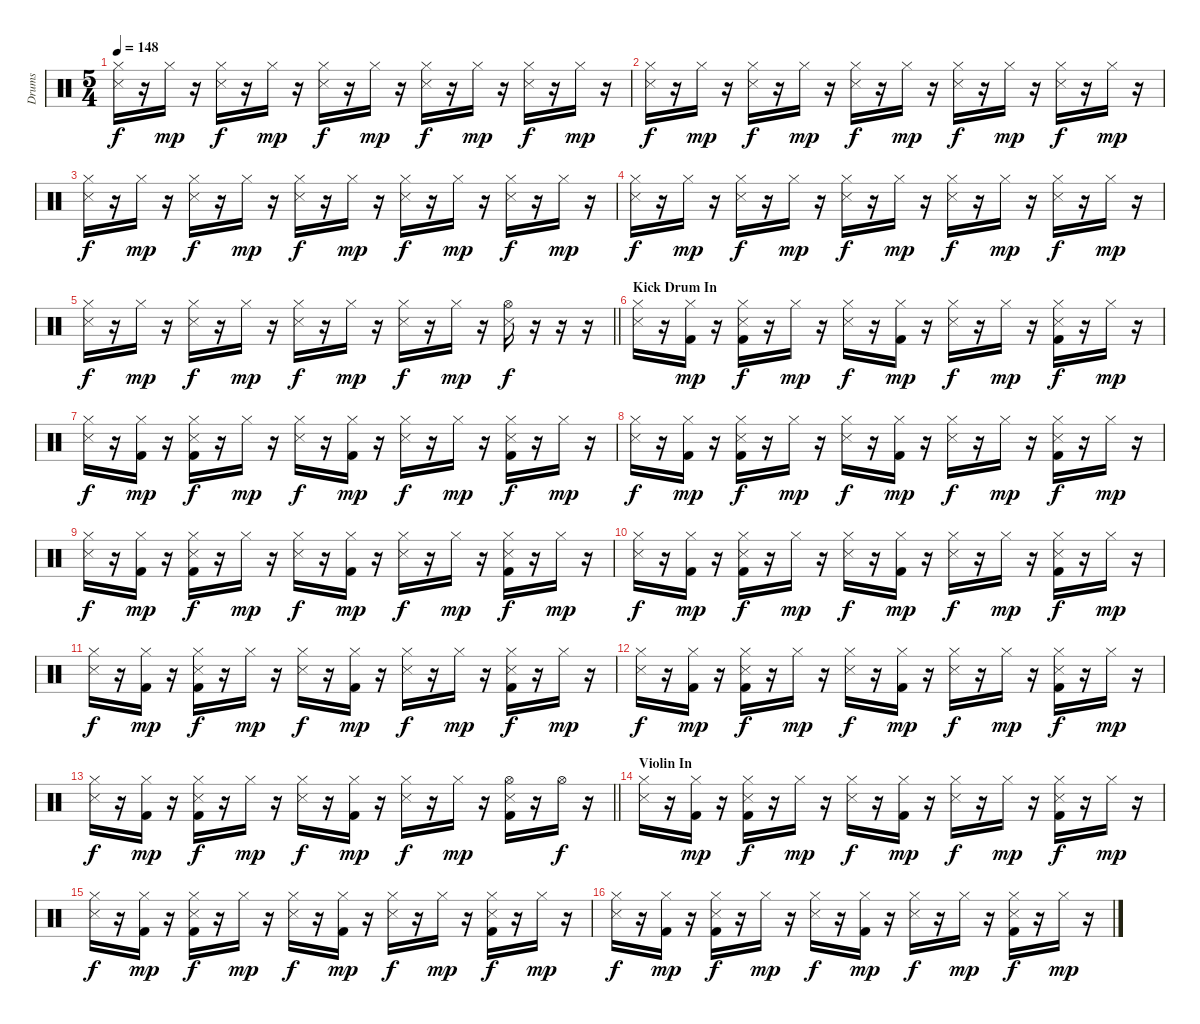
\track ("Drums" "Drums") {instrument percussion}
\staff {score}
\articulation defaults
\ts (5 4)
\tempo 148
\clef neutral
\ks c
("Hi-Hat (closed)" "Snare (side stick) 3").16{dy f} r.16 "Hi-Hat (closed)".16{dy mp} r.16 ("Hi-Hat (closed)" "Snare (side stick) 3").16{dy f} r.16 "Hi-Hat (closed)".16{dy mp} r.16 ("Hi-Hat (closed)" "Snare (side stick) 3").16{dy f} r.16 "Hi-Hat (closed)".16{dy mp} r.16 ("Hi-Hat (closed)" "Snare (side stick) 3").16{dy f} r.16 "Hi-Hat (closed)".16{dy mp} r.16 ("Hi-Hat (closed)" "Snare (side stick) 3").16{dy f} r.16 "Hi-Hat (closed)".16{dy mp} r.16 |
("Hi-Hat (closed)" "Snare (side stick) 3").16{dy f} r.16 "Hi-Hat (closed)".16{dy mp} r.16 ("Hi-Hat (closed)" "Snare (side stick) 3").16{dy f} r.16 "Hi-Hat (closed)".16{dy mp} r.16 ("Hi-Hat (closed)" "Snare (side stick) 3").16{dy f} r.16 "Hi-Hat (closed)".16{dy mp} r.16 ("Hi-Hat (closed)" "Snare (side stick) 3").16{dy f} r.16 "Hi-Hat (closed)".16{dy mp} r.16 ("Hi-Hat (closed)" "Snare (side stick) 3").16{dy f} r.16 "Hi-Hat (closed)".16{dy mp} r.16 |
("Hi-Hat (closed)" "Snare (side stick) 3").16{dy f} r.16 "Hi-Hat (closed)".16{dy mp} r.16 ("Hi-Hat (closed)" "Snare (side stick) 3").16{dy f} r.16 "Hi-Hat (closed)".16{dy mp} r.16 ("Hi-Hat (closed)" "Snare (side stick) 3").16{dy f} r.16 "Hi-Hat (closed)".16{dy mp} r.16 ("Hi-Hat (closed)" "Snare (side stick) 3").16{dy f} r.16 "Hi-Hat (closed)".16{dy mp} r.16 ("Hi-Hat (closed)" "Snare (side stick) 3").16{dy f} r.16 "Hi-Hat (closed)".16{dy mp} r.16 |
("Hi-Hat (closed)" "Snare (side stick) 3").16{dy f} r.16 "Hi-Hat (closed)".16{dy mp} r.16 ("Hi-Hat (closed)" "Snare (side stick) 3").16{dy f} r.16 "Hi-Hat (closed)".16{dy mp} r.16 ("Hi-Hat (closed)" "Snare (side stick) 3").16{dy f} r.16 "Hi-Hat (closed)".16{dy mp} r.16 ("Hi-Hat (closed)" "Snare (side stick) 3").16{dy f} r.16 "Hi-Hat (closed)".16{dy mp} r.16 ("Hi-Hat (closed)" "Snare (side stick) 3").16{dy f} r.16 "Hi-Hat (closed)".16{dy mp} r.16 |
\barLineRight lightlight
("Hi-Hat (closed)" "Snare (side stick) 3").16{dy f} r.16 "Hi-Hat (closed)".16{dy mp} r.16 ("Hi-Hat (closed)" "Snare (side stick) 3").16{dy f} r.16 "Hi-Hat (closed)".16{dy mp} r.16 ("Hi-Hat (closed)" "Snare (side stick) 3").16{dy f} r.16 "Hi-Hat (closed)".16{dy mp} r.16 ("Hi-Hat (closed)" "Snare (side stick) 3").16{dy f} r.16 "Hi-Hat (closed)".16{dy mp} r.16 ("Hi-Hat (open)" "Snare (side stick) 3").16{dy f} r.16 r.16 r.16 |
\section ("" "Kick Drum In")
("Hi-Hat (closed)" "Snare (side stick) 3").16 r.16 ("Hi-Hat (closed)" "Kick (hit) 2").16{dy mp} r.16 ("Hi-Hat (closed)" "Snare (side stick) 3" "Kick (hit) 2").16{dy f} r.16 "Hi-Hat (closed)".16{dy mp} r.16 ("Hi-Hat (closed)" "Snare (side stick) 3").16{dy f} r.16 ("Hi-Hat (closed)" "Kick (hit) 2").16{dy mp} r.16 ("Hi-Hat (closed)" "Snare (side stick) 3").16{dy f} r.16 "Hi-Hat (closed)".16{dy mp} r.16 ("Hi-Hat (closed)" "Snare (side stick) 3" "Kick (hit) 2").16{dy f} r.16 "Hi-Hat (closed)".16{dy mp} r.16 |
("Hi-Hat (closed)" "Snare (side stick) 3").16{dy f} r.16 ("Hi-Hat (closed)" "Kick (hit) 2").16{dy mp} r.16 ("Hi-Hat (closed)" "Snare (side stick) 3" "Kick (hit) 2").16{dy f} r.16 "Hi-Hat (closed)".16{dy mp} r.16 ("Hi-Hat (closed)" "Snare (side stick) 3").16{dy f} r.16 ("Hi-Hat (closed)" "Kick (hit) 2").16{dy mp} r.16 ("Hi-Hat (closed)" "Snare (side stick) 3").16{dy f} r.16 "Hi-Hat (closed)".16{dy mp} r.16 ("Hi-Hat (closed)" "Snare (side stick) 3" "Kick (hit) 2").16{dy f} r.16 "Hi-Hat (closed)".16{dy mp} r.16 |
("Hi-Hat (closed)" "Snare (side stick) 3").16{dy f} r.16 ("Hi-Hat (closed)" "Kick (hit) 2").16{dy mp} r.16 ("Hi-Hat (closed)" "Snare (side stick) 3" "Kick (hit) 2").16{dy f} r.16 "Hi-Hat (closed)".16{dy mp} r.16 ("Hi-Hat (closed)" "Snare (side stick) 3").16{dy f} r.16 ("Hi-Hat (closed)" "Kick (hit) 2").16{dy mp} r.16 ("Hi-Hat (closed)" "Snare (side stick) 3").16{dy f} r.16 "Hi-Hat (closed)".16{dy mp} r.16 ("Hi-Hat (closed)" "Snare (side stick) 3" "Kick (hit) 2").16{dy f} r.16 "Hi-Hat (closed)".16{dy mp} r.16 |
("Hi-Hat (closed)" "Snare (side stick) 3").16{dy f} r.16 ("Hi-Hat (closed)" "Kick (hit) 2").16{dy mp} r.16 ("Hi-Hat (closed)" "Snare (side stick) 3" "Kick (hit) 2").16{dy f} r.16 "Hi-Hat (closed)".16{dy mp} r.16 ("Hi-Hat (closed)" "Snare (side stick) 3").16{dy f} r.16 ("Hi-Hat (closed)" "Kick (hit) 2").16{dy mp} r.16 ("Hi-Hat (closed)" "Snare (side stick) 3").16{dy f} r.16 "Hi-Hat (closed)".16{dy mp} r.16 ("Hi-Hat (closed)" "Snare (side stick) 3" "Kick (hit) 2").16{dy f} r.16 "Hi-Hat (closed)".16{dy mp} r.16 |
("Hi-Hat (closed)" "Snare (side stick) 3").16{dy f} r.16 ("Hi-Hat (closed)" "Kick (hit) 2").16{dy mp} r.16 ("Hi-Hat (closed)" "Snare (side stick) 3" "Kick (hit) 2").16{dy f} r.16 "Hi-Hat (closed)".16{dy mp} r.16 ("Hi-Hat (closed)" "Snare (side stick) 3").16{dy f} r.16 ("Hi-Hat (closed)" "Kick (hit) 2").16{dy mp} r.16 ("Hi-Hat (closed)" "Snare (side stick) 3").16{dy f} r.16 "Hi-Hat (closed)".16{dy mp} r.16 ("Hi-Hat (closed)" "Snare (side stick) 3" "Kick (hit) 2").16{dy f} r.16 "Hi-Hat (closed)".16{dy mp} r.16 |
("Hi-Hat (closed)" "Snare (side stick) 3").16{dy f} r.16 ("Hi-Hat (closed)" "Kick (hit) 2").16{dy mp} r.16 ("Hi-Hat (closed)" "Snare (side stick) 3" "Kick (hit) 2").16{dy f} r.16 "Hi-Hat (closed)".16{dy mp} r.16 ("Hi-Hat (closed)" "Snare (side stick) 3").16{dy f} r.16 ("Hi-Hat (closed)" "Kick (hit) 2").16{dy mp} r.16 ("Hi-Hat (closed)" "Snare (side stick) 3").16{dy f} r.16 "Hi-Hat (closed)".16{dy mp} r.16 ("Hi-Hat (closed)" "Snare (side stick) 3" "Kick (hit) 2").16{dy f} r.16 "Hi-Hat (closed)".16{dy mp} r.16 |
("Hi-Hat (closed)" "Snare (side stick) 3").16{dy f} r.16 ("Hi-Hat (closed)" "Kick (hit) 2").16{dy mp} r.16 ("Hi-Hat (closed)" "Snare (side stick) 3" "Kick (hit) 2").16{dy f} r.16 "Hi-Hat (closed)".16{dy mp} r.16 ("Hi-Hat (closed)" "Snare (side stick) 3").16{dy f} r.16 ("Hi-Hat (closed)" "Kick (hit) 2").16{dy mp} r.16 ("Hi-Hat (closed)" "Snare (side stick) 3").16{dy f} r.16 "Hi-Hat (closed)".16{dy mp} r.16 ("Hi-Hat (closed)" "Snare (side stick) 3" "Kick (hit) 2").16{dy f} r.16 "Hi-Hat (closed)".16{dy mp} r.16 |
\barLineRight lightlight
("Hi-Hat (closed)" "Snare (side stick) 3").16{dy f} r.16 ("Hi-Hat (closed)" "Kick (hit) 2").16{dy mp} r.16 ("Hi-Hat (closed)" "Snare (side stick) 3" "Kick (hit) 2").16{dy f} r.16 "Hi-Hat (closed)".16{dy mp} r.16 ("Hi-Hat (closed)" "Snare (side stick) 3").16{dy f} r.16 ("Hi-Hat (closed)" "Kick (hit) 2").16{dy mp} r.16 ("Hi-Hat (closed)" "Snare (side stick) 3").16{dy f} r.16 "Hi-Hat (closed)".16{dy mp} r.16 ("Hi-Hat (open)" "Snare (side stick) 3" "Kick (hit) 2").16 r.16 "Hi-Hat (open)".16{dy f} r.16 |
\section ("" "Violin In")
("Hi-Hat (closed)" "Snare (side stick) 3").16 r.16 ("Hi-Hat (closed)" "Kick (hit) 2").16{dy mp} r.16 ("Hi-Hat (closed)" "Snare (side stick) 3" "Kick (hit) 2").16{dy f} r.16 "Hi-Hat (closed)".16{dy mp} r.16 ("Hi-Hat (closed)" "Snare (side stick) 3").16{dy f} r.16 ("Hi-Hat (closed)" "Kick (hit) 2").16{dy mp} r.16 ("Hi-Hat (closed)" "Snare (side stick) 3").16{dy f} r.16 "Hi-Hat (closed)".16{dy mp} r.16 ("Hi-Hat (closed)" "Snare (side stick) 3" "Kick (hit) 2").16{dy f} r.16 "Hi-Hat (closed)".16{dy mp} r.16 |
("Hi-Hat (closed)" "Snare (side stick) 3").16{dy f} r.16 ("Hi-Hat (closed)" "Kick (hit) 2").16{dy mp} r.16 ("Hi-Hat (closed)" "Snare (side stick) 3" "Kick (hit) 2").16{dy f} r.16 "Hi-Hat (closed)".16{dy mp} r.16 ("Hi-Hat (closed)" "Snare (side stick) 3").16{dy f} r.16 ("Hi-Hat (closed)" "Kick (hit) 2").16{dy mp} r.16 ("Hi-Hat (closed)" "Snare (side stick) 3").16{dy f} r.16 "Hi-Hat (closed)".16{dy mp} r.16 ("Hi-Hat (closed)" "Snare (side stick) 3" "Kick (hit) 2").16{dy f} r.16 "Hi-Hat (closed)".16{dy mp} r.16 |
("Hi-Hat (closed)" "Snare (side stick) 3").16{dy f} r.16 ("Hi-Hat (closed)" "Kick (hit) 2").16{dy mp} r.16 ("Hi-Hat (closed)" "Snare (side stick) 3" "Kick (hit) 2").16{dy f} r.16 "Hi-Hat (closed)".16{dy mp} r.16 ("Hi-Hat (closed)" "Snare (side stick) 3").16{dy f} r.16 ("Hi-Hat (closed)" "Kick (hit) 2").16{dy mp} r.16 ("Hi-Hat (closed)" "Snare (side stick) 3").16{dy f} r.16 "Hi-Hat (closed)".16{dy mp} r.16 ("Hi-Hat (closed)" "Snare (side stick) 3" "Kick (hit) 2").16{dy f} r.16 "Hi-Hat (closed)".16{dy mp} r.16
